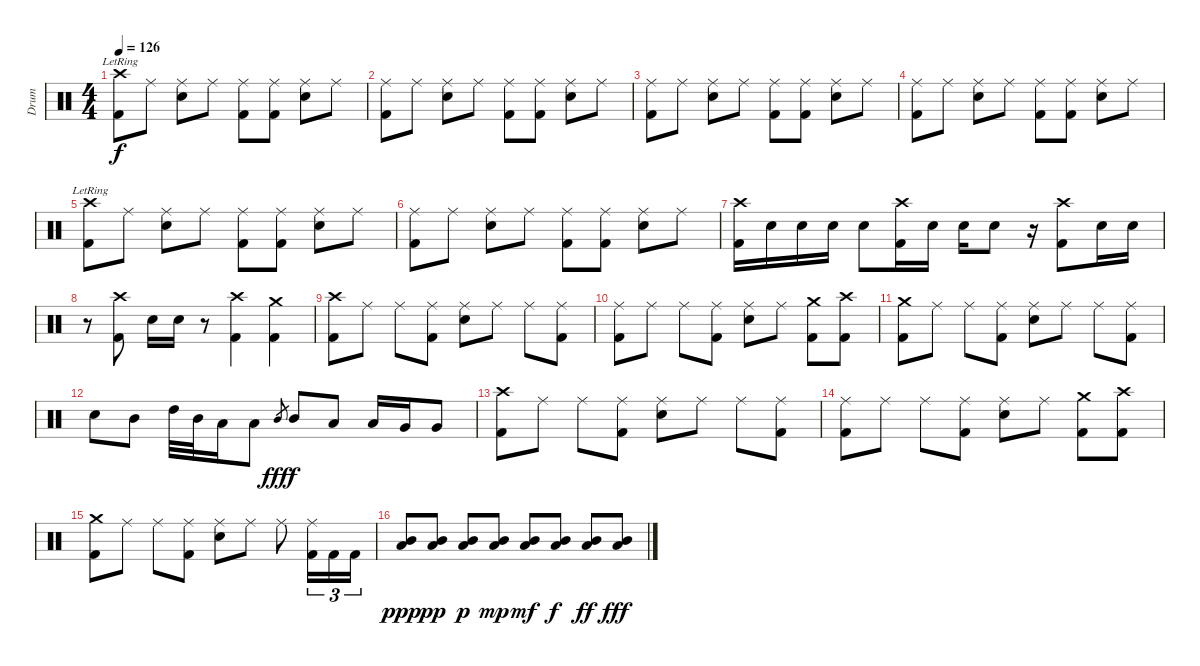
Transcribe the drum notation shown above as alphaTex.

\track ("Drum" "Drum") {instrument percussion}
\staff {score}
\articulation defaults
\ts (4 4)
\tempo 126
\clef neutral
\ks c
("Crash high (hit)"{lr} "Kick (hit) 2").8{dy f} "Ride (middle)".8 ("Ride (middle)" "Snare (hit) 2").8 "Ride (middle)".8 ("Ride (middle)" "Kick (hit) 2").8 ("Ride (middle)" "Kick (hit) 2").8 ("Ride (middle)" "Snare (hit) 2").8 "Ride (middle)".8 |
("Ride (middle)" "Kick (hit) 2").8 "Ride (middle)".8 ("Ride (middle)" "Snare (hit) 2").8 "Ride (middle)".8 ("Ride (middle)" "Kick (hit) 2").8 ("Ride (middle)" "Kick (hit) 2").8 ("Ride (middle)" "Snare (hit) 2").8 "Ride (middle)".8 |
("Ride (middle)" "Kick (hit) 2").8 "Ride (middle)".8 ("Ride (middle)" "Snare (hit) 2").8 "Ride (middle)".8 ("Ride (middle)" "Kick (hit) 2").8 ("Ride (middle)" "Kick (hit) 2").8 ("Ride (middle)" "Snare (hit) 2").8 "Ride (middle)".8 |
("Ride (middle)" "Kick (hit) 2").8 "Ride (middle)".8 ("Ride (middle)" "Snare (hit) 2").8 "Ride (middle)".8 ("Ride (middle)" "Kick (hit) 2").8 ("Ride (middle)" "Kick (hit) 2").8 ("Ride (middle)" "Snare (hit) 2").8 "Ride (middle)".8 |
("Crash high (hit)"{lr} "Kick (hit) 2").8 "Ride (middle)".8 ("Ride (middle)" "Snare (hit) 2").8 "Ride (middle)".8 ("Ride (middle)" "Kick (hit) 2").8 ("Ride (middle)" "Kick (hit) 2").8 ("Ride (middle)" "Snare (hit) 2").8 "Ride (middle)".8 |
("Ride (middle)" "Kick (hit) 2").8 "Ride (middle)".8 ("Ride (middle)" "Snare (hit) 2").8 "Ride (middle)".8 ("Ride (middle)" "Kick (hit) 2").8 ("Ride (middle)" "Kick (hit) 2").8 ("Ride (middle)" "Snare (hit) 2").8 "Ride (middle)".8 |
("Crash high (hit)" "Kick (hit) 2").16 "Snare (hit) 2".16 "Snare (hit) 2".16 "Snare (hit) 2".16 "Snare (hit) 2".8 ("Crash high (hit)" "Kick (hit) 2").16 "Snare (hit) 2".16 "Snare (hit) 2".16 "Snare (hit) 2".8 r.16 ("Crash high (hit)" "Kick (hit) 2").8 "Snare (hit) 2".16 "Snare (hit) 2".16 |
r.8 ("Crash high (hit)" "Kick (hit) 2").8 "Snare (hit) 2".16 "Snare (hit) 2".16 r.8 ("Crash high (hit)" "Kick (hit) 2").4 ("Crash medium (hit)" "Kick (hit) 2").4 |
("Crash high (hit)" "Kick (hit) 2").8 "Ride (middle)".8 "Ride (middle)".8 ("Ride (middle)" "Kick (hit) 2").8 ("Ride (middle)" "Snare (hit) 2").8 "Ride (middle)".8 "Ride (middle)".8 ("Ride (middle)" "Kick (hit) 2").8 |
("Ride (middle)" "Kick (hit) 2").8 "Ride (middle)".8 "Ride (middle)".8 ("Ride (middle)" "Kick (hit) 2").8 ("Ride (middle)" "Snare (hit) 2").8 "Ride (middle)".8 ("Crash medium (hit)" "Kick (hit) 2").8 ("Crash high (hit)" "Kick (hit) 2").8 |
("Crash medium (hit)" "Kick (hit) 2").8 "Ride (middle)".8 "Ride (middle)".8 ("Ride (middle)" "Kick (hit) 2").8 ("Ride (middle)" "Snare (hit) 2").8 "Ride (middle)".8 "Ride (middle)".8 ("Ride (middle)" "Kick (hit) 2").8 |
"Snare (hit) 2".8 "Mid Tom (hit)".8 "High Tom (hit)".32 "Mid Tom (hit)".32 "Low Tom (hit)".16 "Low Tom (hit)".8 "Mid Tom (hit)".8{gr dy fff} "Mid Tom (hit)".8{dy f} "Low Tom (hit)".8 "Low Tom (hit)".16 "Very Low Tom (hit)".16 "Very Low Tom (hit)".8 |
("Crash high (hit)" "Kick (hit) 2").8 "Ride (middle)".8 "Ride (middle)".8 ("Ride (middle)" "Kick (hit) 2").8 ("Ride (middle)" "Snare (hit) 2").8 "Ride (middle)".8 "Ride (middle)".8 ("Ride (middle)" "Kick (hit) 2").8 |
("Ride (middle)" "Kick (hit) 2").8 "Ride (middle)".8 "Ride (middle)".8 ("Ride (middle)" "Kick (hit) 2").8 ("Ride (middle)" "Snare (hit) 2").8 "Ride (middle)".8 ("Crash medium (hit)" "Kick (hit) 2").8 ("Crash high (hit)" "Kick (hit) 2").8 |
("Crash medium (hit)" "Kick (hit) 2").8 "Ride (middle)".8 "Ride (middle)".8 ("Ride (middle)" "Kick (hit) 2").8 ("Ride (middle)" "Snare (hit) 2").8 "Ride (middle)".8 "Ride (middle)".8 ("Ride (middle)" "Kick (hit) 2").16{tu (3 2)} "Kick (hit) 2".16{tu (3 2)} "Kick (hit) 2".16{tu (3 2)} |
("Low Tom (hit)" "Mid Tom (hit)").8{dy ppp} ("Low Tom (hit)" "Mid Tom (hit)").8{dy pp} ("Low Tom (hit)" "Mid Tom (hit)").8{dy p} ("Low Tom (hit)" "Mid Tom (hit)").8{dy mp} ("Low Tom (hit)" "Mid Tom (hit)").8{dy mf} ("Low Tom (hit)" "Mid Tom (hit)").8{dy f} ("Low Tom (hit)" "Mid Tom (hit)").8{dy ff} ("Low Tom (hit)" "Mid Tom (hit)").8{dy fff}
